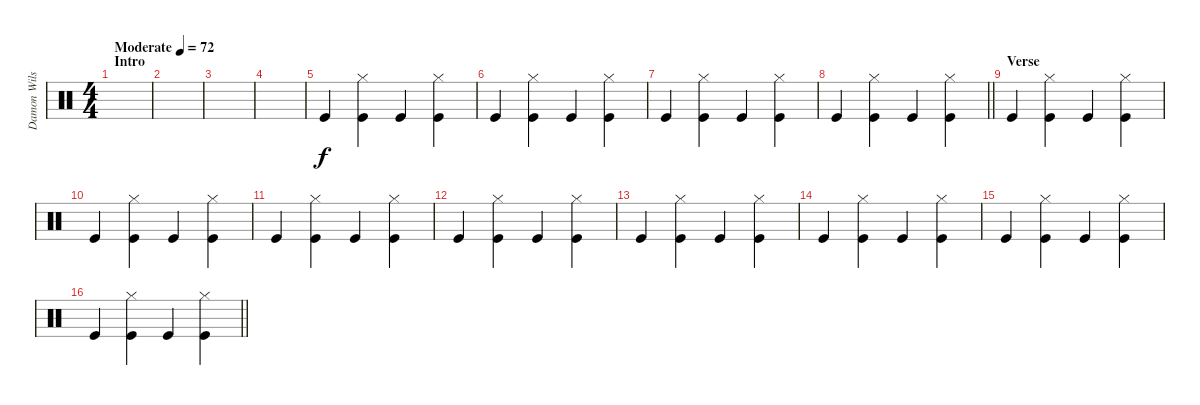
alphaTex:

\track ("Damon Wilson" "Damon Wils") {instrument percussion}
\staff {score}
\articulation defaults
\ts (4 4)
\section ("" "Intro")
\tempo (72 "Moderate")
\clef neutral
\ks c
|
|
|
|
"Kick (hit)".4 ("Hi-Hat (closed)" "Kick (hit)").4 "Kick (hit)".4 ("Hi-Hat (closed)" "Kick (hit)").4 |
"Kick (hit)".4 ("Hi-Hat (closed)" "Kick (hit)").4 "Kick (hit)".4 ("Hi-Hat (closed)" "Kick (hit)").4 |
"Kick (hit)".4 ("Hi-Hat (closed)" "Kick (hit)").4 "Kick (hit)".4 ("Hi-Hat (closed)" "Kick (hit)").4 |
\barLineRight lightlight "Kick (hit)".4
("Hi-Hat (closed)" "Kick (hit)").4 "Kick (hit)".4 ("Hi-Hat (closed)" "Kick (hit)").4 |
\section ("" "Verse")
"Kick (hit)".4 ("Hi-Hat (closed)" "Kick (hit)").4 "Kick (hit)".4 ("Hi-Hat (closed)" "Kick (hit)").4 |
"Kick (hit)".4 ("Hi-Hat (closed)" "Kick (hit)").4 "Kick (hit)".4 ("Hi-Hat (closed)" "Kick (hit)").4 |
"Kick (hit)".4 ("Hi-Hat (closed)" "Kick (hit)").4 "Kick (hit)".4 ("Hi-Hat (closed)" "Kick (hit)").4 |
"Kick (hit)".4 ("Hi-Hat (closed)" "Kick (hit)").4 "Kick (hit)".4 ("Hi-Hat (closed)" "Kick (hit)").4 |
"Kick (hit)".4 ("Hi-Hat (closed)" "Kick (hit)").4 "Kick (hit)".4 ("Hi-Hat (closed)" "Kick (hit)").4 |
"Kick (hit)".4 ("Hi-Hat (closed)" "Kick (hit)").4 "Kick (hit)".4 ("Hi-Hat (closed)" "Kick (hit)").4 |
"Kick (hit)".4 ("Hi-Hat (closed)" "Kick (hit)").4 "Kick (hit)".4 ("Hi-Hat (closed)" "Kick (hit)").4 |
\barLineRight lightlight "Kick (hit)".4
("Hi-Hat (closed)" "Kick (hit)").4 "Kick (hit)".4 ("Hi-Hat (closed)" "Kick (hit)").4
